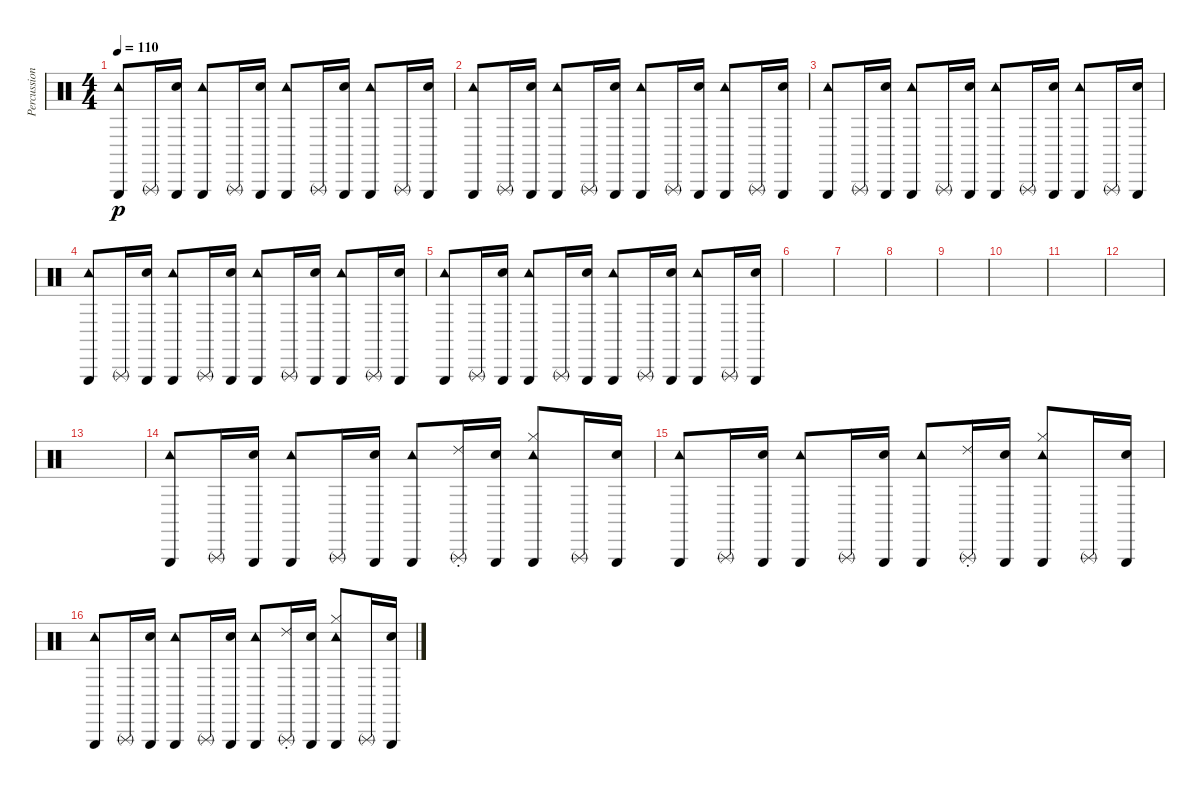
\track ("Percussion" "Percussion") {instrument percussion}
\staff {score}
\articulation defaults
\ts (4 4)
\tempo 110
\clef neutral
\ks c
("Tambourine (hit)" "Triangle (hit)").8{dy p} "Triangle (rnute)".16 ("Metronome (bell)" "Triangle (hit)").16 ("Tambourine (hit)" "Triangle (hit)").8 "Triangle (rnute)".16 ("Metronome (bell)" "Triangle (hit)").16 ("Tambourine (hit)" "Triangle (hit)").8 "Triangle (rnute)".16 ("Metronome (bell)" "Triangle (hit)").16 ("Tambourine (hit)" "Triangle (hit)").8 "Triangle (rnute)".16 ("Metronome (bell)" "Triangle (hit)").16 |
("Tambourine (hit)" "Triangle (hit)").8 "Triangle (rnute)".16 ("Metronome (bell)" "Triangle (hit)").16 ("Tambourine (hit)" "Triangle (hit)").8 "Triangle (rnute)".16 ("Metronome (bell)" "Triangle (hit)").16 ("Tambourine (hit)" "Triangle (hit)").8 "Triangle (rnute)".16 ("Metronome (bell)" "Triangle (hit)").16 ("Tambourine (hit)" "Triangle (hit)").8 "Triangle (rnute)".16 ("Metronome (bell)" "Triangle (hit)").16 |
("Tambourine (hit)" "Triangle (hit)").8 "Triangle (rnute)".16 ("Metronome (bell)" "Triangle (hit)").16 ("Tambourine (hit)" "Triangle (hit)").8 "Triangle (rnute)".16 ("Metronome (bell)" "Triangle (hit)").16 ("Tambourine (hit)" "Triangle (hit)").8 "Triangle (rnute)".16 ("Metronome (bell)" "Triangle (hit)").16 ("Tambourine (hit)" "Triangle (hit)").8 "Triangle (rnute)".16 ("Metronome (bell)" "Triangle (hit)").16 |
("Tambourine (hit)" "Triangle (hit)").8 "Triangle (rnute)".16 ("Metronome (bell)" "Triangle (hit)").16 ("Tambourine (hit)" "Triangle (hit)").8 "Triangle (rnute)".16 ("Metronome (bell)" "Triangle (hit)").16 ("Tambourine (hit)" "Triangle (hit)").8 "Triangle (rnute)".16 ("Metronome (bell)" "Triangle (hit)").16 ("Tambourine (hit)" "Triangle (hit)").8 "Triangle (rnute)".16 ("Metronome (bell)" "Triangle (hit)").16 |
("Tambourine (hit)" "Triangle (hit)").8 "Triangle (rnute)".16 ("Metronome (bell)" "Triangle (hit)").16 ("Tambourine (hit)" "Triangle (hit)").8 "Triangle (rnute)".16 ("Metronome (bell)" "Triangle (hit)").16 ("Tambourine (hit)" "Triangle (hit)").8 "Triangle (rnute)".16 ("Metronome (bell)" "Triangle (hit)").16 ("Tambourine (hit)" "Triangle (hit)").8 "Triangle (rnute)".16 ("Metronome (bell)" "Triangle (hit)").16 |
|
|
|
|
|
|
|
|
("Tambourine (hit)" "Triangle (hit)").8 "Triangle (rnute)".16 ("Metronome (bell)" "Triangle (hit)").16 ("Tambourine (hit)" "Triangle (hit)").8 "Triangle (rnute)".16 ("Metronome (bell)" "Triangle (hit)").16 ("Tambourine (hit)" "Triangle (hit)").8 ("Triangle (rnute)" "Ride (choke) 2").16 ("Metronome (bell)" "Triangle (hit)").16 ("Tambourine (hit)" "Triangle (hit)" "Hi-Hat (closed)").8 "Triangle (rnute)".16 ("Metronome (bell)" "Triangle (hit)").16 |
("Tambourine (hit)" "Triangle (hit)").8 "Triangle (rnute)".16 ("Metronome (bell)" "Triangle (hit)").16 ("Tambourine (hit)" "Triangle (hit)").8 "Triangle (rnute)".16 ("Metronome (bell)" "Triangle (hit)").16 ("Tambourine (hit)" "Triangle (hit)").8 ("Triangle (rnute)" "Ride (choke) 2").16 ("Metronome (bell)" "Triangle (hit)").16 ("Tambourine (hit)" "Triangle (hit)" "Hi-Hat (closed)").8 "Triangle (rnute)".16 ("Metronome (bell)" "Triangle (hit)").16 |
("Tambourine (hit)" "Triangle (hit)").8 "Triangle (rnute)".16 ("Metronome (bell)" "Triangle (hit)").16 ("Tambourine (hit)" "Triangle (hit)").8 "Triangle (rnute)".16 ("Metronome (bell)" "Triangle (hit)").16 ("Tambourine (hit)" "Triangle (hit)").8 ("Triangle (rnute)" "Ride (choke) 2").16 ("Metronome (bell)" "Triangle (hit)").16 ("Tambourine (hit)" "Triangle (hit)" "Hi-Hat (closed)").8 "Triangle (rnute)".16 ("Metronome (bell)" "Triangle (hit)").16
